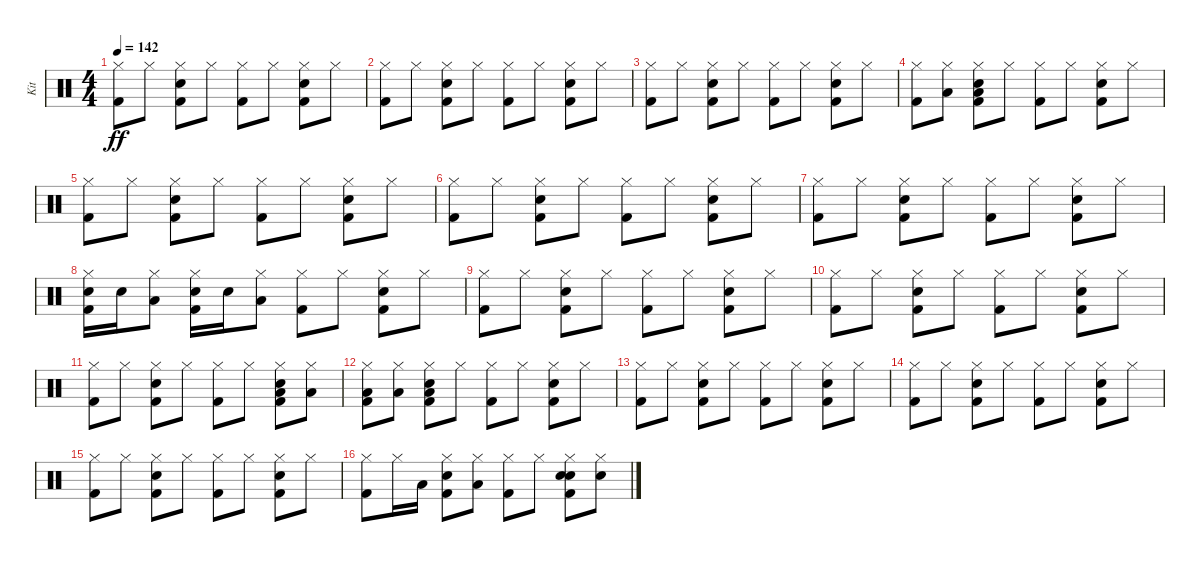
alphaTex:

\track ("Kit" "Kit") {instrument percussion}
\staff {score}
\articulation defaults
\ts (4 4)
\tempo 142
\clef neutral
\ks c
("Kick (hit) 2" "Hi-Hat (closed)").8{dy ff} "Hi-Hat (closed)".8 ("Kick (hit) 2" "Electric Snare (hit)" "Hi-Hat (closed)").8 "Hi-Hat (closed)".8 ("Kick (hit) 2" "Hi-Hat (closed)").8 "Hi-Hat (closed)".8 ("Kick (hit) 2" "Electric Snare (hit)" "Hi-Hat (closed)").8 "Hi-Hat (closed)".8 |
("Kick (hit) 2" "Hi-Hat (closed)").8 "Hi-Hat (closed)".8 ("Kick (hit) 2" "Electric Snare (hit)" "Hi-Hat (closed)").8 "Hi-Hat (closed)".8 ("Kick (hit) 2" "Hi-Hat (closed)").8 "Hi-Hat (closed)".8 ("Kick (hit) 2" "Electric Snare (hit)" "Hi-Hat (closed)").8 "Hi-Hat (closed)".8 |
("Kick (hit) 2" "Hi-Hat (closed)").8 "Hi-Hat (closed)".8 ("Kick (hit) 2" "Electric Snare (hit)" "Hi-Hat (closed)").8 "Hi-Hat (closed)".8 ("Kick (hit) 2" "Hi-Hat (closed)").8 "Hi-Hat (closed)".8 ("Kick (hit) 2" "Electric Snare (hit)" "Hi-Hat (closed)").8 "Hi-Hat (closed)".8 |
("Kick (hit) 2" "Hi-Hat (closed)").8 ("Low Floor Tom (hit)" "Hi-Hat (closed)").8 ("Kick (hit) 2" "Electric Snare (hit)" "Low Floor Tom (hit)" "Hi-Hat (closed)").8 "Hi-Hat (closed)".8 ("Kick (hit) 2" "Hi-Hat (closed)").8 "Hi-Hat (closed)".8 ("Kick (hit) 2" "Electric Snare (hit)" "Hi-Hat (closed)").8 "Hi-Hat (closed)".8 |
("Kick (hit) 2" "Hi-Hat (closed)").8 "Hi-Hat (closed)".8 ("Kick (hit) 2" "Electric Snare (hit)" "Hi-Hat (closed)").8 "Hi-Hat (closed)".8 ("Kick (hit) 2" "Hi-Hat (closed)").8 "Hi-Hat (closed)".8 ("Kick (hit) 2" "Electric Snare (hit)" "Hi-Hat (closed)").8 "Hi-Hat (closed)".8 |
("Kick (hit) 2" "Hi-Hat (closed)").8 "Hi-Hat (closed)".8 ("Kick (hit) 2" "Electric Snare (hit)" "Hi-Hat (closed)").8 "Hi-Hat (closed)".8 ("Kick (hit) 2" "Hi-Hat (closed)").8 "Hi-Hat (closed)".8 ("Kick (hit) 2" "Electric Snare (hit)" "Hi-Hat (closed)").8 "Hi-Hat (closed)".8 |
("Kick (hit) 2" "Hi-Hat (closed)").8 "Hi-Hat (closed)".8 ("Kick (hit) 2" "Electric Snare (hit)" "Hi-Hat (closed)").8 "Hi-Hat (closed)".8 ("Kick (hit) 2" "Hi-Hat (closed)").8 "Hi-Hat (closed)".8 ("Kick (hit) 2" "Electric Snare (hit)" "Hi-Hat (closed)").8 "Hi-Hat (closed)".8 |
("Kick (hit) 2" "Electric Snare (hit)" "Hi-Hat (closed)").16 "Electric Snare (hit)".16 ("Hi-Hat (closed)" "Low Tom (hit)").8 ("Kick (hit) 2" "Electric Snare (hit)" "Hi-Hat (closed)").16 "Electric Snare (hit)".16 ("Hi-Hat (closed)" "Low Tom (hit)").8 ("Kick (hit) 2" "Hi-Hat (closed)").8 "Hi-Hat (closed)".8 ("Kick (hit) 2" "Electric Snare (hit)" "Hi-Hat (closed)").8 "Hi-Hat (closed)".8 |
("Kick (hit) 2" "Hi-Hat (closed)").8 "Hi-Hat (closed)".8 ("Kick (hit) 2" "Electric Snare (hit)" "Hi-Hat (closed)").8 "Hi-Hat (closed)".8 ("Kick (hit) 2" "Hi-Hat (closed)").8 "Hi-Hat (closed)".8 ("Kick (hit) 2" "Electric Snare (hit)" "Hi-Hat (closed)").8 "Hi-Hat (closed)".8 |
("Kick (hit) 2" "Hi-Hat (closed)").8 "Hi-Hat (closed)".8 ("Kick (hit) 2" "Electric Snare (hit)" "Hi-Hat (closed)").8 "Hi-Hat (closed)".8 ("Kick (hit) 2" "Hi-Hat (closed)").8 "Hi-Hat (closed)".8 ("Kick (hit) 2" "Electric Snare (hit)" "Hi-Hat (closed)").8 "Hi-Hat (closed)".8 |
("Kick (hit) 2" "Hi-Hat (closed)").8 "Hi-Hat (closed)".8 ("Kick (hit) 2" "Electric Snare (hit)" "Hi-Hat (closed)").8 "Hi-Hat (closed)".8 ("Kick (hit) 2" "Hi-Hat (closed)").8 "Hi-Hat (closed)".8 ("Kick (hit) 2" "Electric Snare (hit)" "Low Floor Tom (hit)" "Hi-Hat (closed)").8 ("Low Floor Tom (hit)" "Hi-Hat (closed)").8 |
("Kick (hit) 2" "Low Floor Tom (hit)" "Hi-Hat (closed)").8 ("Low Floor Tom (hit)" "Hi-Hat (closed)").8 ("Kick (hit) 2" "Electric Snare (hit)" "Low Floor Tom (hit)" "Hi-Hat (closed)").8 "Hi-Hat (closed)".8 ("Kick (hit) 2" "Hi-Hat (closed)").8 "Hi-Hat (closed)".8 ("Kick (hit) 2" "Electric Snare (hit)" "Hi-Hat (closed)").8 "Hi-Hat (closed)".8 |
("Kick (hit) 2" "Hi-Hat (closed)").8 "Hi-Hat (closed)".8 ("Kick (hit) 2" "Electric Snare (hit)" "Hi-Hat (closed)").8 "Hi-Hat (closed)".8 ("Kick (hit) 2" "Hi-Hat (closed)").8 "Hi-Hat (closed)".8 ("Kick (hit) 2" "Electric Snare (hit)" "Hi-Hat (closed)").8 "Hi-Hat (closed)".8 |
("Kick (hit) 2" "Hi-Hat (closed)").8 "Hi-Hat (closed)".8 ("Kick (hit) 2" "Electric Snare (hit)" "Hi-Hat (closed)").8 "Hi-Hat (closed)".8 ("Kick (hit) 2" "Hi-Hat (closed)").8 "Hi-Hat (closed)".8 ("Kick (hit) 2" "Electric Snare (hit)" "Hi-Hat (closed)").8 "Hi-Hat (closed)".8 |
("Kick (hit) 2" "Hi-Hat (closed)").8 "Hi-Hat (closed)".8 ("Kick (hit) 2" "Electric Snare (hit)" "Hi-Hat (closed)").8 "Hi-Hat (closed)".8 ("Kick (hit) 2" "Hi-Hat (closed)").8 "Hi-Hat (closed)".8 ("Kick (hit) 2" "Electric Snare (hit)" "Hi-Hat (closed)").8 "Hi-Hat (closed)".8 |
("Kick (hit) 2" "Hi-Hat (closed)").8 "Hi-Hat (closed)".16 "Low Floor Tom (hit)".16 ("Kick (hit) 2" "Electric Snare (hit)" "Hi-Hat (closed)").8 ("Low Floor Tom (hit)" "Hi-Hat (closed)").8 ("Kick (hit) 2" "Hi-Hat (closed)").8 "Hi-Hat (closed)".8 ("Kick (hit) 2" "Hand Clap (hit)" "Electric Snare (hit)" "Hi-Hat (closed)").8 ("Hand Clap (hit)" "Hi-Hat (closed)").8
